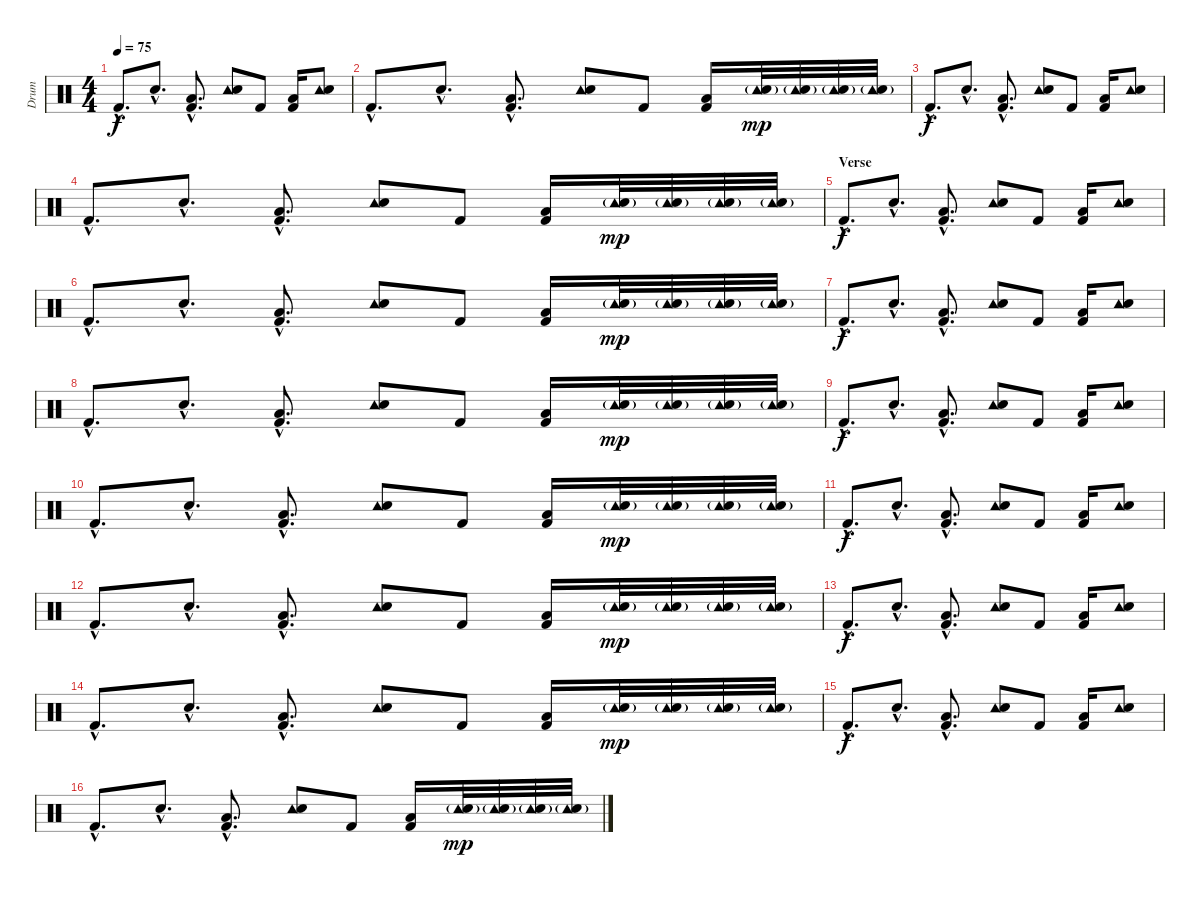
\track ("Drum" "Drum") {instrument percussion}
\staff {score}
\articulation defaults
\ts (4 4)
\tempo 75
\clef neutral
\ks c "Kick (hit) 2"{hac}.8{d dy f} "Snare (hit) 2"{hac}.8{d}
("Low Floor Tom (hit)"{hac} "Kick (hit) 2"{hac}).8{d} ("Tambourine (hit)" "Snare (hit) 2").8 "Kick (hit) 2".8 ("Low Tom (hit)" "Kick (hit) 2").16 ("Tambourine (hit)" "Snare (hit) 2").8 |
"Kick (hit) 2"{hac}.8{d} "Snare (hit) 2"{hac}.8{d} ("Low Floor Tom (hit)"{hac} "Kick (hit) 2"{hac}).8{d} ("Tambourine (hit)" "Snare (hit) 2").8 "Kick (hit) 2".8 ("Low Tom (hit)" "Kick (hit) 2").16 ("Tambourine (hit)" "Electric Snare (hit)"{g}).32{dy mp} ("Tambourine (hit)" "Electric Snare (hit)"{g}).32 ("Tambourine (hit)" "Electric Snare (hit)"{g}).32 ("Tambourine (hit)" "Electric Snare (hit)"{g}).32 |
"Kick (hit) 2"{hac}.8{d dy f} "Snare (hit) 2"{hac}.8{d} ("Low Floor Tom (hit)"{hac} "Kick (hit) 2"{hac}).8{d} ("Tambourine (hit)" "Snare (hit) 2").8 "Kick (hit) 2".8 ("Low Tom (hit)" "Kick (hit) 2").16 ("Tambourine (hit)" "Snare (hit) 2").8 |
"Kick (hit) 2"{hac}.8{d} "Snare (hit) 2"{hac}.8{d} ("Low Floor Tom (hit)"{hac} "Kick (hit) 2"{hac}).8{d} ("Tambourine (hit)" "Snare (hit) 2").8 "Kick (hit) 2".8 ("Low Tom (hit)" "Kick (hit) 2").16 ("Tambourine (hit)" "Electric Snare (hit)"{g}).32{dy mp} ("Tambourine (hit)" "Electric Snare (hit)"{g}).32 ("Tambourine (hit)" "Electric Snare (hit)"{g}).32 ("Tambourine (hit)" "Electric Snare (hit)"{g}).32 |
\section ("" "Verse")
"Kick (hit) 2"{hac}.8{d dy f} "Snare (hit) 2"{hac}.8{d} ("Low Floor Tom (hit)"{hac} "Kick (hit) 2"{hac}).8{d} ("Tambourine (hit)" "Snare (hit) 2").8 "Kick (hit) 2".8 ("Low Tom (hit)" "Kick (hit) 2").16 ("Tambourine (hit)" "Snare (hit) 2").8 |
"Kick (hit) 2"{hac}.8{d} "Snare (hit) 2"{hac}.8{d} ("Low Floor Tom (hit)"{hac} "Kick (hit) 2"{hac}).8{d} ("Tambourine (hit)" "Snare (hit) 2").8 "Kick (hit) 2".8 ("Low Tom (hit)" "Kick (hit) 2").16 ("Tambourine (hit)" "Electric Snare (hit)"{g}).32{dy mp} ("Tambourine (hit)" "Electric Snare (hit)"{g}).32 ("Tambourine (hit)" "Electric Snare (hit)"{g}).32 ("Tambourine (hit)" "Electric Snare (hit)"{g}).32 |
"Kick (hit) 2"{hac}.8{d dy f} "Snare (hit) 2"{hac}.8{d} ("Low Floor Tom (hit)"{hac} "Kick (hit) 2"{hac}).8{d} ("Tambourine (hit)" "Snare (hit) 2").8 "Kick (hit) 2".8 ("Low Tom (hit)" "Kick (hit) 2").16 ("Tambourine (hit)" "Snare (hit) 2").8 |
"Kick (hit) 2"{hac}.8{d} "Snare (hit) 2"{hac}.8{d} ("Low Floor Tom (hit)"{hac} "Kick (hit) 2"{hac}).8{d} ("Tambourine (hit)" "Snare (hit) 2").8 "Kick (hit) 2".8 ("Low Tom (hit)" "Kick (hit) 2").16 ("Tambourine (hit)" "Electric Snare (hit)"{g}).32{dy mp} ("Tambourine (hit)" "Electric Snare (hit)"{g}).32 ("Tambourine (hit)" "Electric Snare (hit)"{g}).32 ("Tambourine (hit)" "Electric Snare (hit)"{g}).32 |
"Kick (hit) 2"{hac}.8{d dy f} "Snare (hit) 2"{hac}.8{d} ("Low Floor Tom (hit)"{hac} "Kick (hit) 2"{hac}).8{d} ("Tambourine (hit)" "Snare (hit) 2").8 "Kick (hit) 2".8 ("Low Tom (hit)" "Kick (hit) 2").16 ("Tambourine (hit)" "Snare (hit) 2").8 |
"Kick (hit) 2"{hac}.8{d} "Snare (hit) 2"{hac}.8{d} ("Low Floor Tom (hit)"{hac} "Kick (hit) 2"{hac}).8{d} ("Tambourine (hit)" "Snare (hit) 2").8 "Kick (hit) 2".8 ("Low Tom (hit)" "Kick (hit) 2").16 ("Tambourine (hit)" "Electric Snare (hit)"{g}).32{dy mp} ("Tambourine (hit)" "Electric Snare (hit)"{g}).32 ("Tambourine (hit)" "Electric Snare (hit)"{g}).32 ("Tambourine (hit)" "Electric Snare (hit)"{g}).32 |
"Kick (hit) 2"{hac}.8{d dy f} "Snare (hit) 2"{hac}.8{d} ("Low Floor Tom (hit)"{hac} "Kick (hit) 2"{hac}).8{d} ("Tambourine (hit)" "Snare (hit) 2").8 "Kick (hit) 2".8 ("Low Tom (hit)" "Kick (hit) 2").16 ("Tambourine (hit)" "Snare (hit) 2").8 |
"Kick (hit) 2"{hac}.8{d} "Snare (hit) 2"{hac}.8{d} ("Low Floor Tom (hit)"{hac} "Kick (hit) 2"{hac}).8{d} ("Tambourine (hit)" "Snare (hit) 2").8 "Kick (hit) 2".8 ("Low Tom (hit)" "Kick (hit) 2").16 ("Tambourine (hit)" "Electric Snare (hit)"{g}).32{dy mp} ("Tambourine (hit)" "Electric Snare (hit)"{g}).32 ("Tambourine (hit)" "Electric Snare (hit)"{g}).32 ("Tambourine (hit)" "Electric Snare (hit)"{g}).32 |
"Kick (hit) 2"{hac}.8{d dy f} "Snare (hit) 2"{hac}.8{d} ("Low Floor Tom (hit)"{hac} "Kick (hit) 2"{hac}).8{d} ("Tambourine (hit)" "Snare (hit) 2").8 "Kick (hit) 2".8 ("Low Tom (hit)" "Kick (hit) 2").16 ("Tambourine (hit)" "Snare (hit) 2").8 |
"Kick (hit) 2"{hac}.8{d} "Snare (hit) 2"{hac}.8{d} ("Low Floor Tom (hit)"{hac} "Kick (hit) 2"{hac}).8{d} ("Tambourine (hit)" "Snare (hit) 2").8 "Kick (hit) 2".8 ("Low Tom (hit)" "Kick (hit) 2").16 ("Tambourine (hit)" "Electric Snare (hit)"{g}).32{dy mp} ("Tambourine (hit)" "Electric Snare (hit)"{g}).32 ("Tambourine (hit)" "Electric Snare (hit)"{g}).32 ("Tambourine (hit)" "Electric Snare (hit)"{g}).32 |
"Kick (hit) 2"{hac}.8{d dy f} "Snare (hit) 2"{hac}.8{d} ("Low Floor Tom (hit)"{hac} "Kick (hit) 2"{hac}).8{d} ("Tambourine (hit)" "Snare (hit) 2").8 "Kick (hit) 2".8 ("Low Tom (hit)" "Kick (hit) 2").16 ("Tambourine (hit)" "Snare (hit) 2").8 |
"Kick (hit) 2"{hac}.8{d} "Snare (hit) 2"{hac}.8{d} ("Low Floor Tom (hit)"{hac} "Kick (hit) 2"{hac}).8{d} ("Tambourine (hit)" "Snare (hit) 2").8 "Kick (hit) 2".8 ("Low Tom (hit)" "Kick (hit) 2").16 ("Tambourine (hit)" "Electric Snare (hit)"{g}).32{dy mp} ("Tambourine (hit)" "Electric Snare (hit)"{g}).32 ("Tambourine (hit)" "Electric Snare (hit)"{g}).32 ("Tambourine (hit)" "Electric Snare (hit)"{g}).32
